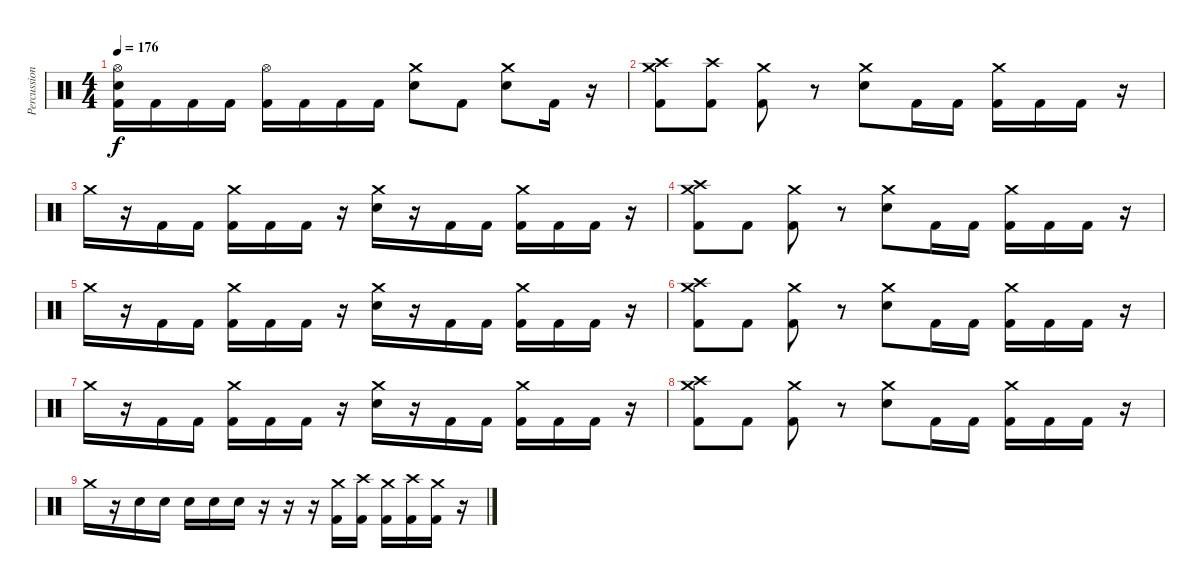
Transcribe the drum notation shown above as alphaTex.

\track ("Percussion" "Percussion") {instrument percussion}
\staff {score}
\articulation defaults
\ts (4 4)
\tempo 176
\clef neutral
\ks c
("Hi-Hat (open)" "Snare (hit) 2" "Kick (hit) 2").16{dy f} "Kick (hit) 2".16 "Kick (hit) 2".16 "Kick (hit) 2".16 ("Hi-Hat (open)" "Kick (hit) 2").16 "Kick (hit) 2".16 "Kick (hit) 2".16 "Kick (hit) 2".16 ("Crash medium (hit)" "Snare (hit) 2").8 "Kick (hit) 2".8 ("Crash medium (hit)" "Snare (hit) 2").8 "Kick (hit) 2".16 r.16 |
("Crash high (hit)" "Crash medium (hit)" "Kick (hit) 2").8 ("Crash high (hit)" "Kick (hit) 2").8 ("Crash medium (hit)" "Kick (hit) 2").8 r.8 ("Crash medium (hit)" "Snare (hit) 2").8 "Kick (hit) 2".16 "Kick (hit) 2".16 ("Crash medium (hit)" "Kick (hit) 2").16 "Kick (hit) 2".16 "Kick (hit) 2".16 r.16 |
"Crash medium (hit)".16 r.16 "Kick (hit) 2".16 "Kick (hit) 2".16 ("Crash medium (hit)" "Kick (hit) 2").16 "Kick (hit) 2".16 "Kick (hit) 2".16 r.16 ("Crash medium (hit)" "Snare (hit) 2").16 r.16 "Kick (hit) 2".16 "Kick (hit) 2".16 ("Crash medium (hit)" "Kick (hit) 2").16 "Kick (hit) 2".16 "Kick (hit) 2".16 r.16 |
("Crash high (hit)" "Crash medium (hit)" "Kick (hit) 2").8 "Kick (hit) 2".8 ("Crash medium (hit)" "Kick (hit) 2").8 r.8 ("Crash medium (hit)" "Snare (hit) 2").8 "Kick (hit) 2".16 "Kick (hit) 2".16 ("Crash medium (hit)" "Kick (hit) 2").16 "Kick (hit) 2".16 "Kick (hit) 2".16 r.16 |
"Crash medium (hit)".16 r.16 "Kick (hit) 2".16 "Kick (hit) 2".16 ("Crash medium (hit)" "Kick (hit) 2").16 "Kick (hit) 2".16 "Kick (hit) 2".16 r.16 ("Crash medium (hit)" "Snare (hit) 2").16 r.16 "Kick (hit) 2".16 "Kick (hit) 2".16 ("Crash medium (hit)" "Kick (hit) 2").16 "Kick (hit) 2".16 "Kick (hit) 2".16 r.16 |
("Crash high (hit)" "Crash medium (hit)" "Kick (hit) 2").8 "Kick (hit) 2".8 ("Crash medium (hit)" "Kick (hit) 2").8 r.8 ("Crash medium (hit)" "Snare (hit) 2").8 "Kick (hit) 2".16 "Kick (hit) 2".16 ("Crash medium (hit)" "Kick (hit) 2").16 "Kick (hit) 2".16 "Kick (hit) 2".16 r.16 |
"Crash medium (hit)".16 r.16 "Kick (hit) 2".16 "Kick (hit) 2".16 ("Crash medium (hit)" "Kick (hit) 2").16 "Kick (hit) 2".16 "Kick (hit) 2".16 r.16 ("Crash medium (hit)" "Snare (hit) 2").16 r.16 "Kick (hit) 2".16 "Kick (hit) 2".16 ("Crash medium (hit)" "Kick (hit) 2").16 "Kick (hit) 2".16 "Kick (hit) 2".16 r.16 |
("Crash high (hit)" "Crash medium (hit)" "Kick (hit) 2").8 "Kick (hit) 2".8 ("Crash medium (hit)" "Kick (hit) 2").8 r.8 ("Crash medium (hit)" "Snare (hit) 2").8 "Kick (hit) 2".16 "Kick (hit) 2".16 ("Crash medium (hit)" "Kick (hit) 2").16 "Kick (hit) 2".16 "Kick (hit) 2".16 r.16 |
"Crash medium (hit)".16 r.16 "Snare (hit) 2".16 "Snare (hit) 2".16 "Snare (hit) 2".16 "Snare (hit) 2".16 "Snare (hit) 2".16 r.16 r.16 r.16 ("Crash medium (hit)" "Kick (hit) 2").16 ("Crash high (hit)" "Kick (hit) 2").16 ("Crash medium (hit)" "Kick (hit) 2").16 ("Crash high (hit)" "Kick (hit) 2").16 ("Crash medium (hit)" "Kick (hit) 2").16 r.16
